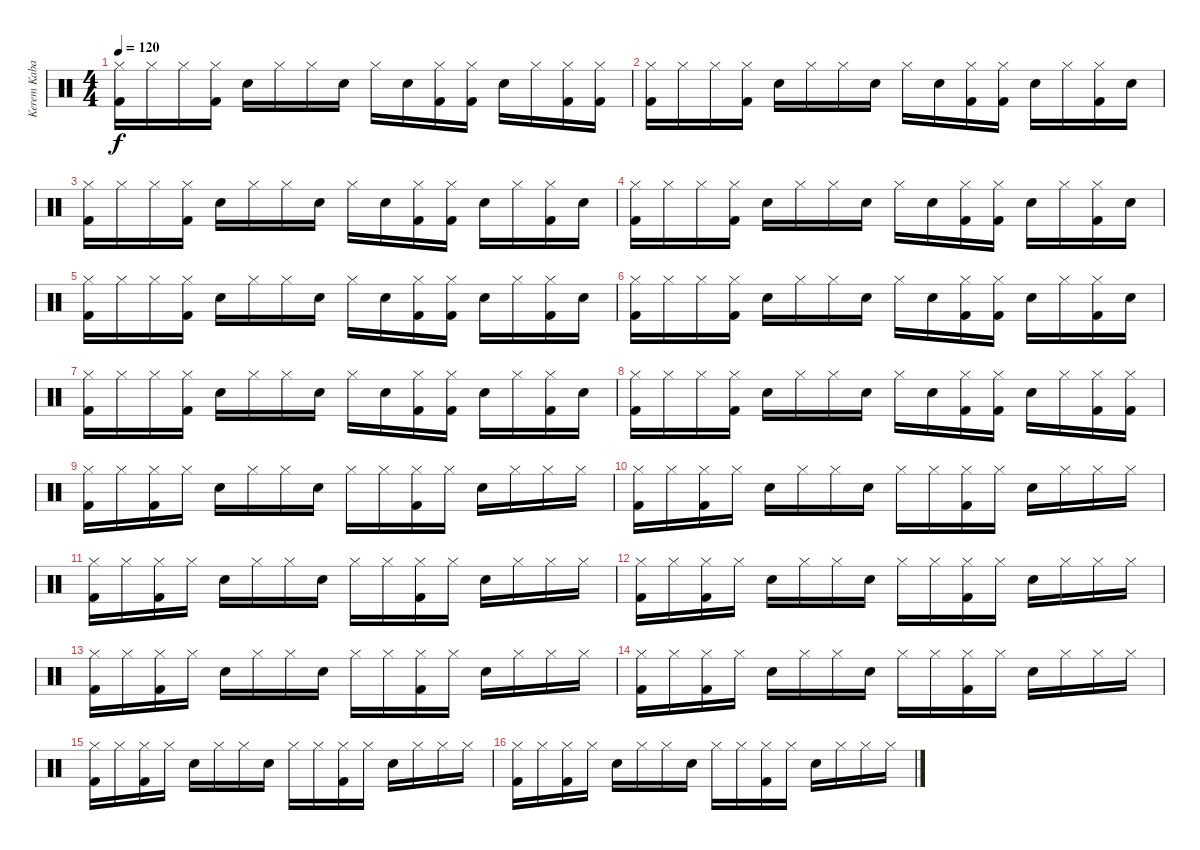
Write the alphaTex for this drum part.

\track ("Kerem Kabadayı" "Kerem Kaba") {instrument percussion}
\staff {score}
\articulation defaults
\ts (4 4)
\tempo 120
\clef neutral
\ks c
("Hi-Hat (closed)" "Kick (hit) 2").16{dy f} "Hi-Hat (closed)".16 "Hi-Hat (closed)".16 ("Hi-Hat (closed)" "Kick (hit) 2").16 "Electric Snare (hit)".16 "Hi-Hat (closed)".16 "Hi-Hat (closed)".16 "Electric Snare (hit)".16 "Hi-Hat (closed)".16 "Electric Snare (hit)".16 ("Hi-Hat (closed)" "Kick (hit) 2").16 ("Hi-Hat (closed)" "Kick (hit) 2").16 "Electric Snare (hit)".16 "Hi-Hat (closed)".16 ("Hi-Hat (closed)" "Kick (hit) 2").16 ("Hi-Hat (closed)" "Kick (hit) 2").16 |
("Hi-Hat (closed)" "Kick (hit) 2").16 "Hi-Hat (closed)".16 "Hi-Hat (closed)".16 ("Hi-Hat (closed)" "Kick (hit) 2").16 "Electric Snare (hit)".16 "Hi-Hat (closed)".16 "Hi-Hat (closed)".16 "Electric Snare (hit)".16 "Hi-Hat (closed)".16 "Electric Snare (hit)".16 ("Hi-Hat (closed)" "Kick (hit) 2").16 ("Hi-Hat (closed)" "Kick (hit) 2").16 "Electric Snare (hit)".16 "Hi-Hat (closed)".16 ("Hi-Hat (closed)" "Kick (hit) 2").16 "Electric Snare (hit)".16 |
("Hi-Hat (closed)" "Kick (hit) 2").16 "Hi-Hat (closed)".16 "Hi-Hat (closed)".16 ("Hi-Hat (closed)" "Kick (hit) 2").16 "Electric Snare (hit)".16 "Hi-Hat (closed)".16 "Hi-Hat (closed)".16 "Electric Snare (hit)".16 "Hi-Hat (closed)".16 "Electric Snare (hit)".16 ("Hi-Hat (closed)" "Kick (hit) 2").16 ("Hi-Hat (closed)" "Kick (hit) 2").16 "Electric Snare (hit)".16 "Hi-Hat (closed)".16 ("Hi-Hat (closed)" "Kick (hit) 2").16 "Electric Snare (hit)".16 |
("Hi-Hat (closed)" "Kick (hit) 2").16 "Hi-Hat (closed)".16 "Hi-Hat (closed)".16 ("Hi-Hat (closed)" "Kick (hit) 2").16 "Electric Snare (hit)".16 "Hi-Hat (closed)".16 "Hi-Hat (closed)".16 "Electric Snare (hit)".16 "Hi-Hat (closed)".16 "Electric Snare (hit)".16 ("Hi-Hat (closed)" "Kick (hit) 2").16 ("Hi-Hat (closed)" "Kick (hit) 2").16 "Electric Snare (hit)".16 "Hi-Hat (closed)".16 ("Hi-Hat (closed)" "Kick (hit) 2").16 "Electric Snare (hit)".16 |
("Hi-Hat (closed)" "Kick (hit) 2").16 "Hi-Hat (closed)".16 "Hi-Hat (closed)".16 ("Hi-Hat (closed)" "Kick (hit) 2").16 "Electric Snare (hit)".16 "Hi-Hat (closed)".16 "Hi-Hat (closed)".16 "Electric Snare (hit)".16 "Hi-Hat (closed)".16 "Electric Snare (hit)".16 ("Hi-Hat (closed)" "Kick (hit) 2").16 ("Hi-Hat (closed)" "Kick (hit) 2").16 "Electric Snare (hit)".16 "Hi-Hat (closed)".16 ("Hi-Hat (closed)" "Kick (hit) 2").16 "Electric Snare (hit)".16 |
("Hi-Hat (closed)" "Kick (hit) 2").16 "Hi-Hat (closed)".16 "Hi-Hat (closed)".16 ("Hi-Hat (closed)" "Kick (hit) 2").16 "Electric Snare (hit)".16 "Hi-Hat (closed)".16 "Hi-Hat (closed)".16 "Electric Snare (hit)".16 "Hi-Hat (closed)".16 "Electric Snare (hit)".16 ("Hi-Hat (closed)" "Kick (hit) 2").16 ("Hi-Hat (closed)" "Kick (hit) 2").16 "Electric Snare (hit)".16 "Hi-Hat (closed)".16 ("Hi-Hat (closed)" "Kick (hit) 2").16 "Electric Snare (hit)".16 |
("Hi-Hat (closed)" "Kick (hit) 2").16 "Hi-Hat (closed)".16 "Hi-Hat (closed)".16 ("Hi-Hat (closed)" "Kick (hit) 2").16 "Electric Snare (hit)".16 "Hi-Hat (closed)".16 "Hi-Hat (closed)".16 "Electric Snare (hit)".16 "Hi-Hat (closed)".16 "Electric Snare (hit)".16 ("Hi-Hat (closed)" "Kick (hit) 2").16 ("Hi-Hat (closed)" "Kick (hit) 2").16 "Electric Snare (hit)".16 "Hi-Hat (closed)".16 ("Hi-Hat (closed)" "Kick (hit) 2").16 "Electric Snare (hit)".16 |
("Hi-Hat (closed)" "Kick (hit) 2").16 "Hi-Hat (closed)".16 "Hi-Hat (closed)".16 ("Hi-Hat (closed)" "Kick (hit) 2").16 "Electric Snare (hit)".16 "Hi-Hat (closed)".16 "Hi-Hat (closed)".16 "Electric Snare (hit)".16 "Hi-Hat (closed)".16 "Electric Snare (hit)".16 ("Hi-Hat (closed)" "Kick (hit) 2").16 ("Hi-Hat (closed)" "Kick (hit) 2").16 "Electric Snare (hit)".16 "Hi-Hat (closed)".16 ("Hi-Hat (closed)" "Kick (hit) 2").16 ("Hi-Hat (closed)" "Kick (hit) 2").16 |
("Hi-Hat (closed)" "Kick (hit) 2").16 "Hi-Hat (closed)".16 ("Hi-Hat (closed)" "Kick (hit) 2").16 "Hi-Hat (closed)".16 "Electric Snare (hit)".16 "Hi-Hat (closed)".16 "Hi-Hat (closed)".16 "Electric Snare (hit)".16 "Hi-Hat (closed)".16 "Hi-Hat (closed)".16 ("Hi-Hat (closed)" "Kick (hit) 2").16 "Hi-Hat (closed)".16 "Electric Snare (hit)".16 "Hi-Hat (closed)".16 "Hi-Hat (closed)".16 "Hi-Hat (closed)".16 |
("Hi-Hat (closed)" "Kick (hit) 2").16 "Hi-Hat (closed)".16 ("Hi-Hat (closed)" "Kick (hit) 2").16 "Hi-Hat (closed)".16 "Electric Snare (hit)".16 "Hi-Hat (closed)".16 "Hi-Hat (closed)".16 "Electric Snare (hit)".16 "Hi-Hat (closed)".16 "Hi-Hat (closed)".16 ("Hi-Hat (closed)" "Kick (hit) 2").16 "Hi-Hat (closed)".16 "Electric Snare (hit)".16 "Hi-Hat (closed)".16 "Hi-Hat (closed)".16 "Hi-Hat (closed)".16 |
("Hi-Hat (closed)" "Kick (hit) 2").16 "Hi-Hat (closed)".16 ("Hi-Hat (closed)" "Kick (hit) 2").16 "Hi-Hat (closed)".16 "Electric Snare (hit)".16 "Hi-Hat (closed)".16 "Hi-Hat (closed)".16 "Electric Snare (hit)".16 "Hi-Hat (closed)".16 "Hi-Hat (closed)".16 ("Hi-Hat (closed)" "Kick (hit) 2").16 "Hi-Hat (closed)".16 "Electric Snare (hit)".16 "Hi-Hat (closed)".16 "Hi-Hat (closed)".16 "Hi-Hat (closed)".16 |
("Hi-Hat (closed)" "Kick (hit) 2").16 "Hi-Hat (closed)".16 ("Hi-Hat (closed)" "Kick (hit) 2").16 "Hi-Hat (closed)".16 "Electric Snare (hit)".16 "Hi-Hat (closed)".16 "Hi-Hat (closed)".16 "Electric Snare (hit)".16 "Hi-Hat (closed)".16 "Hi-Hat (closed)".16 ("Hi-Hat (closed)" "Kick (hit) 2").16 "Hi-Hat (closed)".16 "Electric Snare (hit)".16 "Hi-Hat (closed)".16 "Hi-Hat (closed)".16 "Hi-Hat (closed)".16 |
("Hi-Hat (closed)" "Kick (hit) 2").16 "Hi-Hat (closed)".16 ("Hi-Hat (closed)" "Kick (hit) 2").16 "Hi-Hat (closed)".16 "Electric Snare (hit)".16 "Hi-Hat (closed)".16 "Hi-Hat (closed)".16 "Electric Snare (hit)".16 "Hi-Hat (closed)".16 "Hi-Hat (closed)".16 ("Hi-Hat (closed)" "Kick (hit) 2").16 "Hi-Hat (closed)".16 "Electric Snare (hit)".16 "Hi-Hat (closed)".16 "Hi-Hat (closed)".16 "Hi-Hat (closed)".16 |
("Hi-Hat (closed)" "Kick (hit) 2").16 "Hi-Hat (closed)".16 ("Hi-Hat (closed)" "Kick (hit) 2").16 "Hi-Hat (closed)".16 "Electric Snare (hit)".16 "Hi-Hat (closed)".16 "Hi-Hat (closed)".16 "Electric Snare (hit)".16 "Hi-Hat (closed)".16 "Hi-Hat (closed)".16 ("Hi-Hat (closed)" "Kick (hit) 2").16 "Hi-Hat (closed)".16 "Electric Snare (hit)".16 "Hi-Hat (closed)".16 "Hi-Hat (closed)".16 "Hi-Hat (closed)".16 |
("Hi-Hat (closed)" "Kick (hit) 2").16 "Hi-Hat (closed)".16 ("Hi-Hat (closed)" "Kick (hit) 2").16 "Hi-Hat (closed)".16 "Electric Snare (hit)".16 "Hi-Hat (closed)".16 "Hi-Hat (closed)".16 "Electric Snare (hit)".16 "Hi-Hat (closed)".16 "Hi-Hat (closed)".16 ("Hi-Hat (closed)" "Kick (hit) 2").16 "Hi-Hat (closed)".16 "Electric Snare (hit)".16 "Hi-Hat (closed)".16 "Hi-Hat (closed)".16 "Hi-Hat (closed)".16 |
("Hi-Hat (closed)" "Kick (hit) 2").16 "Hi-Hat (closed)".16 ("Hi-Hat (closed)" "Kick (hit) 2").16 "Hi-Hat (closed)".16 "Electric Snare (hit)".16 "Hi-Hat (closed)".16 "Hi-Hat (closed)".16 "Electric Snare (hit)".16 "Hi-Hat (closed)".16 "Hi-Hat (closed)".16 ("Hi-Hat (closed)" "Kick (hit) 2").16 "Hi-Hat (closed)".16 "Electric Snare (hit)".16 "Hi-Hat (closed)".16 "Hi-Hat (closed)".16 "Hi-Hat (closed)".16
